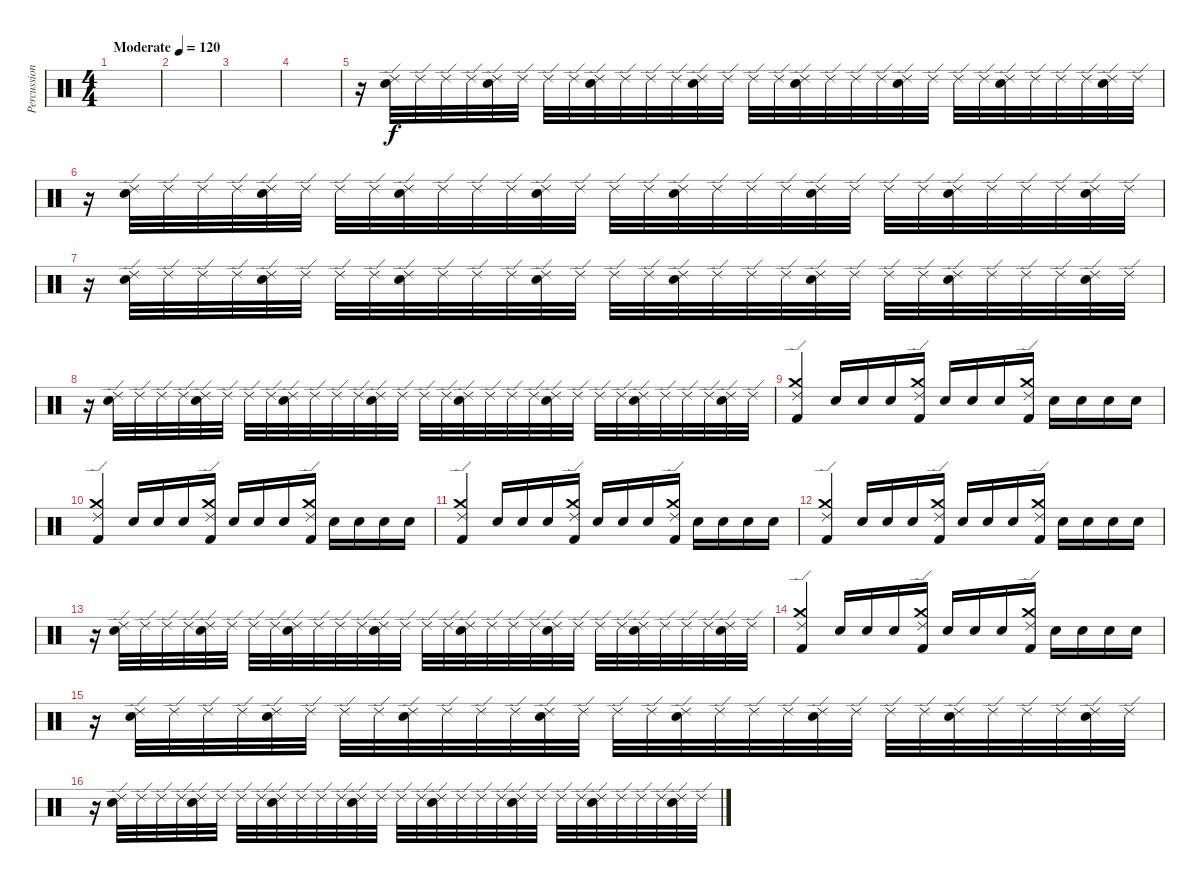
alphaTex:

\track ("Percussion" "Percussion") {instrument percussion}
\staff {score}
\articulation defaults
\ts (4 4)
\tempo (120 "Moderate")
\clef neutral
\ks c
|
|
|
|
r.16 ("Ride (edge) 2" "Snare (hit) 2").32 "Ride (edge) 2".32 "Ride (edge) 2".32 "Ride (edge) 2".32 ("Ride (edge) 2" "Snare (hit) 2").32 "Ride (edge) 2".32 "Ride (edge) 2".32 "Ride (edge) 2".32 ("Ride (edge) 2" "Snare (hit) 2").32 "Ride (edge) 2".32 "Ride (edge) 2".32 "Ride (edge) 2".32 ("Ride (edge) 2" "Snare (hit) 2").32 "Ride (edge) 2".32 "Ride (edge) 2".32 "Ride (edge) 2".32 ("Ride (edge) 2" "Snare (hit) 2").32 "Ride (edge) 2".32 "Ride (edge) 2".32 "Ride (edge) 2".32 ("Ride (edge) 2" "Snare (hit) 2").32 "Ride (edge) 2".32 "Ride (edge) 2".32 "Ride (edge) 2".32 ("Ride (edge) 2" "Snare (hit) 2").32 "Ride (edge) 2".32 "Ride (edge) 2".32 "Ride (edge) 2".32 ("Ride (edge) 2" "Snare (hit) 2").32 "Ride (edge) 2".32 |
r.16 ("Ride (edge) 2" "Snare (hit) 2").32 "Ride (edge) 2".32 "Ride (edge) 2".32 "Ride (edge) 2".32 ("Ride (edge) 2" "Snare (hit) 2").32 "Ride (edge) 2".32 "Ride (edge) 2".32 "Ride (edge) 2".32 ("Ride (edge) 2" "Snare (hit) 2").32 "Ride (edge) 2".32 "Ride (edge) 2".32 "Ride (edge) 2".32 ("Ride (edge) 2" "Snare (hit) 2").32 "Ride (edge) 2".32 "Ride (edge) 2".32 "Ride (edge) 2".32 ("Ride (edge) 2" "Snare (hit) 2").32 "Ride (edge) 2".32 "Ride (edge) 2".32 "Ride (edge) 2".32 ("Ride (edge) 2" "Snare (hit) 2").32 "Ride (edge) 2".32 "Ride (edge) 2".32 "Ride (edge) 2".32 ("Ride (edge) 2" "Snare (hit) 2").32 "Ride (edge) 2".32 "Ride (edge) 2".32 "Ride (edge) 2".32 ("Ride (edge) 2" "Snare (hit) 2").32 "Ride (edge) 2".32 |
r.16 ("Ride (edge) 2" "Snare (hit) 2").32 "Ride (edge) 2".32 "Ride (edge) 2".32 "Ride (edge) 2".32 ("Ride (edge) 2" "Snare (hit) 2").32 "Ride (edge) 2".32 "Ride (edge) 2".32 "Ride (edge) 2".32 ("Ride (edge) 2" "Snare (hit) 2").32 "Ride (edge) 2".32 "Ride (edge) 2".32 "Ride (edge) 2".32 ("Ride (edge) 2" "Snare (hit) 2").32 "Ride (edge) 2".32 "Ride (edge) 2".32 "Ride (edge) 2".32 ("Ride (edge) 2" "Snare (hit) 2").32 "Ride (edge) 2".32 "Ride (edge) 2".32 "Ride (edge) 2".32 ("Ride (edge) 2" "Snare (hit) 2").32 "Ride (edge) 2".32 "Ride (edge) 2".32 "Ride (edge) 2".32 ("Ride (edge) 2" "Snare (hit) 2").32 "Ride (edge) 2".32 "Ride (edge) 2".32 "Ride (edge) 2".32 ("Ride (edge) 2" "Snare (hit) 2").32 "Ride (edge) 2".32 |
r.16 ("Ride (edge) 2" "Snare (hit) 2").32 "Ride (edge) 2".32 "Ride (edge) 2".32 "Ride (edge) 2".32 ("Ride (edge) 2" "Snare (hit) 2").32 "Ride (edge) 2".32 "Ride (edge) 2".32 "Ride (edge) 2".32 ("Ride (edge) 2" "Snare (hit) 2").32 "Ride (edge) 2".32 "Ride (edge) 2".32 "Ride (edge) 2".32 ("Ride (edge) 2" "Snare (hit) 2").32 "Ride (edge) 2".32 "Ride (edge) 2".32 "Ride (edge) 2".32 ("Ride (edge) 2" "Snare (hit) 2").32 "Ride (edge) 2".32 "Ride (edge) 2".32 "Ride (edge) 2".32 ("Ride (edge) 2" "Snare (hit) 2").32 "Ride (edge) 2".32 "Ride (edge) 2".32 "Ride (edge) 2".32 ("Ride (edge) 2" "Snare (hit) 2").32 "Ride (edge) 2".32 "Ride (edge) 2".32 "Ride (edge) 2".32 ("Ride (edge) 2" "Snare (hit) 2").32 "Ride (edge) 2".32 |
("Crash medium (hit)" "Ride (edge) 2" "Kick (hit) 2").4 "Snare (hit) 2".16 "Snare (hit) 2".16 "Snare (hit) 2".16 ("Crash medium (hit)" "Ride (edge) 2" "Kick (hit) 2").16 "Snare (hit) 2".16 "Snare (hit) 2".16 "Snare (hit) 2".16 ("Ride (edge) 2" "Crash medium (hit)" "Kick (hit) 2").16 "Snare (hit) 2".16 "Snare (hit) 2".16 "Snare (hit) 2".16 "Snare (hit) 2".16 |
("Crash medium (hit)" "Ride (edge) 2" "Kick (hit) 2").4 "Snare (hit) 2".16 "Snare (hit) 2".16 "Snare (hit) 2".16 ("Crash medium (hit)" "Ride (edge) 2" "Kick (hit) 2").16 "Snare (hit) 2".16 "Snare (hit) 2".16 "Snare (hit) 2".16 ("Ride (edge) 2" "Crash medium (hit)" "Kick (hit) 2").16 "Snare (hit) 2".16 "Snare (hit) 2".16 "Snare (hit) 2".16 "Snare (hit) 2".16 |
("Crash medium (hit)" "Ride (edge) 2" "Kick (hit) 2").4 "Snare (hit) 2".16 "Snare (hit) 2".16 "Snare (hit) 2".16 ("Crash medium (hit)" "Ride (edge) 2" "Kick (hit) 2").16 "Snare (hit) 2".16 "Snare (hit) 2".16 "Snare (hit) 2".16 ("Ride (edge) 2" "Crash medium (hit)" "Kick (hit) 2").16 "Snare (hit) 2".16 "Snare (hit) 2".16 "Snare (hit) 2".16 "Snare (hit) 2".16 |
("Crash medium (hit)" "Ride (edge) 2" "Kick (hit) 2").4 "Snare (hit) 2".16 "Snare (hit) 2".16 "Snare (hit) 2".16 ("Crash medium (hit)" "Ride (edge) 2" "Kick (hit) 2").16 "Snare (hit) 2".16 "Snare (hit) 2".16 "Snare (hit) 2".16 ("Ride (edge) 2" "Crash medium (hit)" "Kick (hit) 2").16 "Snare (hit) 2".16 "Snare (hit) 2".16 "Snare (hit) 2".16 "Snare (hit) 2".16 |
r.16 ("Ride (edge) 2" "Snare (hit) 2").32 "Ride (edge) 2".32 "Ride (edge) 2".32 "Ride (edge) 2".32 ("Ride (edge) 2" "Snare (hit) 2").32 "Ride (edge) 2".32 "Ride (edge) 2".32 "Ride (edge) 2".32 ("Ride (edge) 2" "Snare (hit) 2").32 "Ride (edge) 2".32 "Ride (edge) 2".32 "Ride (edge) 2".32 ("Ride (edge) 2" "Snare (hit) 2").32 "Ride (edge) 2".32 "Ride (edge) 2".32 "Ride (edge) 2".32 ("Ride (edge) 2" "Snare (hit) 2").32 "Ride (edge) 2".32 "Ride (edge) 2".32 "Ride (edge) 2".32 ("Ride (edge) 2" "Snare (hit) 2").32 "Ride (edge) 2".32 "Ride (edge) 2".32 "Ride (edge) 2".32 ("Ride (edge) 2" "Snare (hit) 2").32 "Ride (edge) 2".32 "Ride (edge) 2".32 "Ride (edge) 2".32 ("Ride (edge) 2" "Snare (hit) 2").32 "Ride (edge) 2".32 |
("Crash medium (hit)" "Ride (edge) 2" "Kick (hit) 2").4 "Snare (hit) 2".16 "Snare (hit) 2".16 "Snare (hit) 2".16 ("Crash medium (hit)" "Ride (edge) 2" "Kick (hit) 2").16 "Snare (hit) 2".16 "Snare (hit) 2".16 "Snare (hit) 2".16 ("Ride (edge) 2" "Crash medium (hit)" "Kick (hit) 2").16 "Snare (hit) 2".16 "Snare (hit) 2".16 "Snare (hit) 2".16 "Snare (hit) 2".16 |
r.16 ("Ride (edge) 2" "Snare (hit) 2").32 "Ride (edge) 2".32 "Ride (edge) 2".32 "Ride (edge) 2".32 ("Ride (edge) 2" "Snare (hit) 2").32 "Ride (edge) 2".32 "Ride (edge) 2".32 "Ride (edge) 2".32 ("Ride (edge) 2" "Snare (hit) 2").32 "Ride (edge) 2".32 "Ride (edge) 2".32 "Ride (edge) 2".32 ("Ride (edge) 2" "Snare (hit) 2").32 "Ride (edge) 2".32 "Ride (edge) 2".32 "Ride (edge) 2".32 ("Ride (edge) 2" "Snare (hit) 2").32 "Ride (edge) 2".32 "Ride (edge) 2".32 "Ride (edge) 2".32 ("Ride (edge) 2" "Snare (hit) 2").32 "Ride (edge) 2".32 "Ride (edge) 2".32 "Ride (edge) 2".32 ("Ride (edge) 2" "Snare (hit) 2").32 "Ride (edge) 2".32 "Ride (edge) 2".32 "Ride (edge) 2".32 ("Ride (edge) 2" "Snare (hit) 2").32 "Ride (edge) 2".32 |
r.16 ("Ride (edge) 2" "Snare (hit) 2").32 "Ride (edge) 2".32 "Ride (edge) 2".32 "Ride (edge) 2".32 ("Ride (edge) 2" "Snare (hit) 2").32 "Ride (edge) 2".32 "Ride (edge) 2".32 "Ride (edge) 2".32 ("Ride (edge) 2" "Snare (hit) 2").32 "Ride (edge) 2".32 "Ride (edge) 2".32 "Ride (edge) 2".32 ("Ride (edge) 2" "Snare (hit) 2").32 "Ride (edge) 2".32 "Ride (edge) 2".32 "Ride (edge) 2".32 ("Ride (edge) 2" "Snare (hit) 2").32 "Ride (edge) 2".32 "Ride (edge) 2".32 "Ride (edge) 2".32 ("Ride (edge) 2" "Snare (hit) 2").32 "Ride (edge) 2".32 "Ride (edge) 2".32 "Ride (edge) 2".32 ("Ride (edge) 2" "Snare (hit) 2").32 "Ride (edge) 2".32 "Ride (edge) 2".32 "Ride (edge) 2".32 ("Ride (edge) 2" "Snare (hit) 2").32 "Ride (edge) 2".32
